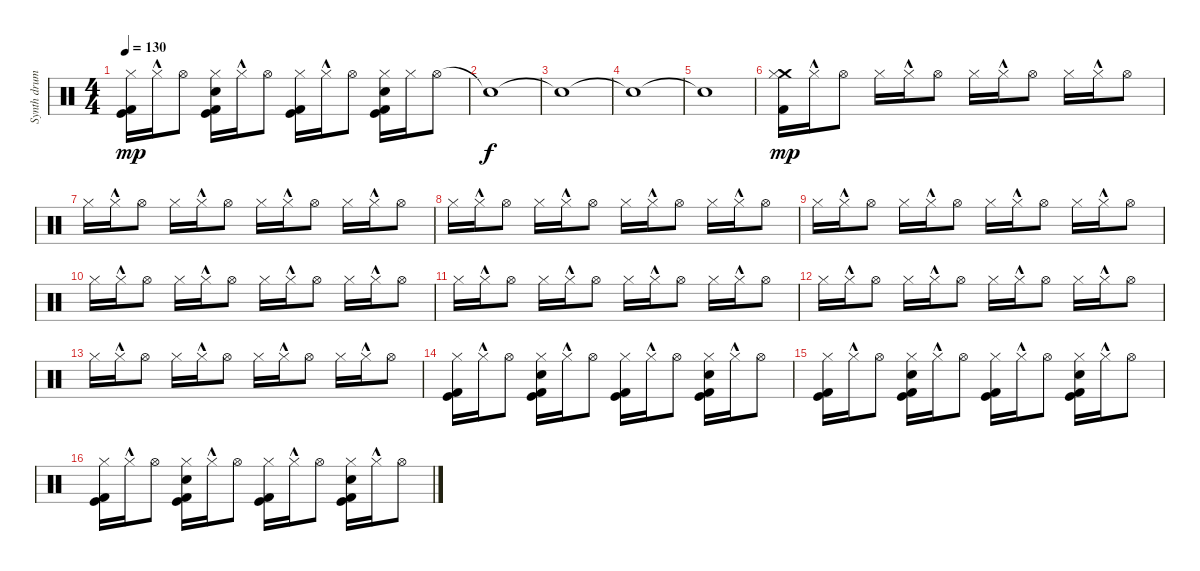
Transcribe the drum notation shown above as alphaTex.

\track ("Synth drums" "Synth drum") {instrument percussion}
\staff {score}
\articulation defaults
\ts (4 4)
\tempo 130
\clef neutral
\ks c
("Kick (hit)" "Kick (hit) 2" "Hi-Hat (closed)").16{dy mp} "Hi-Hat (closed)"{hac}.16 "Hi-Hat (open)".8 ("Hand Clap (hit)" "Kick (hit)" "Kick (hit) 2" "Hi-Hat (closed)").16 "Hi-Hat (closed)"{hac}.16 "Hi-Hat (open)".8 ("Kick (hit)" "Kick (hit) 2" "Hi-Hat (closed)").16 "Hi-Hat (closed)"{hac}.16 "Hi-Hat (open)".8 ("Hand Clap (hit)" "Kick (hit)" "Kick (hit) 2" "Hi-Hat (closed)").16 "Hi-Hat (closed)".16 "Hi-Hat (open)".8 |
"Snare (hit)"{t}.1{dy f} |
"Snare (hit)"{t}.1 |
"Snare (hit)"{t}.1 |
"Snare (hit)"{t}.1 |
("Kick (hit) 2" "Crash medium (hit)" "Hi-Hat (closed)").16{dy mp} "Hi-Hat (closed)"{hac}.16 "Hi-Hat (open)".8 "Hi-Hat (closed)".16 "Hi-Hat (closed)"{hac}.16 "Hi-Hat (open)".8 "Hi-Hat (closed)".16 "Hi-Hat (closed)"{hac}.16 "Hi-Hat (open)".8 "Hi-Hat (closed)".16 "Hi-Hat (closed)"{hac}.16 "Hi-Hat (open)".8 |
"Hi-Hat (closed)".16 "Hi-Hat (closed)"{hac}.16 "Hi-Hat (open)".8 "Hi-Hat (closed)".16 "Hi-Hat (closed)"{hac}.16 "Hi-Hat (open)".8 "Hi-Hat (closed)".16 "Hi-Hat (closed)"{hac}.16 "Hi-Hat (open)".8 "Hi-Hat (closed)".16 "Hi-Hat (closed)"{hac}.16 "Hi-Hat (open)".8 |
"Hi-Hat (closed)".16 "Hi-Hat (closed)"{hac}.16 "Hi-Hat (open)".8 "Hi-Hat (closed)".16 "Hi-Hat (closed)"{hac}.16 "Hi-Hat (open)".8 "Hi-Hat (closed)".16 "Hi-Hat (closed)"{hac}.16 "Hi-Hat (open)".8 "Hi-Hat (closed)".16 "Hi-Hat (closed)"{hac}.16 "Hi-Hat (open)".8 |
"Hi-Hat (closed)".16 "Hi-Hat (closed)"{hac}.16 "Hi-Hat (open)".8 "Hi-Hat (closed)".16 "Hi-Hat (closed)"{hac}.16 "Hi-Hat (open)".8 "Hi-Hat (closed)".16 "Hi-Hat (closed)"{hac}.16 "Hi-Hat (open)".8 "Hi-Hat (closed)".16 "Hi-Hat (closed)"{hac}.16 "Hi-Hat (open)".8 |
"Hi-Hat (closed)".16 "Hi-Hat (closed)"{hac}.16 "Hi-Hat (open)".8 "Hi-Hat (closed)".16 "Hi-Hat (closed)"{hac}.16 "Hi-Hat (open)".8 "Hi-Hat (closed)".16 "Hi-Hat (closed)"{hac}.16 "Hi-Hat (open)".8 "Hi-Hat (closed)".16 "Hi-Hat (closed)"{hac}.16 "Hi-Hat (open)".8 |
"Hi-Hat (closed)".16 "Hi-Hat (closed)"{hac}.16 "Hi-Hat (open)".8 "Hi-Hat (closed)".16 "Hi-Hat (closed)"{hac}.16 "Hi-Hat (open)".8 "Hi-Hat (closed)".16 "Hi-Hat (closed)"{hac}.16 "Hi-Hat (open)".8 "Hi-Hat (closed)".16 "Hi-Hat (closed)"{hac}.16 "Hi-Hat (open)".8 |
"Hi-Hat (closed)".16 "Hi-Hat (closed)"{hac}.16 "Hi-Hat (open)".8 "Hi-Hat (closed)".16 "Hi-Hat (closed)"{hac}.16 "Hi-Hat (open)".8 "Hi-Hat (closed)".16 "Hi-Hat (closed)"{hac}.16 "Hi-Hat (open)".8 "Hi-Hat (closed)".16 "Hi-Hat (closed)"{hac}.16 "Hi-Hat (open)".8 |
"Hi-Hat (closed)".16 "Hi-Hat (closed)"{hac}.16 "Hi-Hat (open)".8 "Hi-Hat (closed)".16 "Hi-Hat (closed)"{hac}.16 "Hi-Hat (open)".8 "Hi-Hat (closed)".16 "Hi-Hat (closed)"{hac}.16 "Hi-Hat (open)".8 "Hi-Hat (closed)".16 "Hi-Hat (closed)"{hac}.16 "Hi-Hat (open)".8 |
("Kick (hit)" "Kick (hit) 2" "Hi-Hat (closed)").16 "Hi-Hat (closed)"{hac}.16 "Hi-Hat (open)".8 ("Hand Clap (hit)" "Kick (hit)" "Kick (hit) 2" "Hi-Hat (closed)").16 "Hi-Hat (closed)"{hac}.16 "Hi-Hat (open)".8 ("Kick (hit)" "Kick (hit) 2" "Hi-Hat (closed)").16 "Hi-Hat (closed)"{hac}.16 "Hi-Hat (open)".8 ("Hand Clap (hit)" "Kick (hit)" "Kick (hit) 2" "Hi-Hat (closed)").16 "Hi-Hat (closed)"{hac}.16 "Hi-Hat (open)".8 |
("Kick (hit)" "Kick (hit) 2" "Hi-Hat (closed)").16 "Hi-Hat (closed)"{hac}.16 "Hi-Hat (open)".8 ("Hand Clap (hit)" "Kick (hit)" "Kick (hit) 2" "Hi-Hat (closed)").16 "Hi-Hat (closed)"{hac}.16 "Hi-Hat (open)".8 ("Kick (hit)" "Kick (hit) 2" "Hi-Hat (closed)").16 "Hi-Hat (closed)"{hac}.16 "Hi-Hat (open)".8 ("Hand Clap (hit)" "Kick (hit)" "Kick (hit) 2" "Hi-Hat (closed)").16 "Hi-Hat (closed)"{hac}.16 "Hi-Hat (open)".8 |
("Kick (hit)" "Kick (hit) 2" "Hi-Hat (closed)").16 "Hi-Hat (closed)"{hac}.16 "Hi-Hat (open)".8 ("Hand Clap (hit)" "Kick (hit)" "Kick (hit) 2" "Hi-Hat (closed)").16 "Hi-Hat (closed)"{hac}.16 "Hi-Hat (open)".8 ("Kick (hit)" "Kick (hit) 2" "Hi-Hat (closed)").16 "Hi-Hat (closed)"{hac}.16 "Hi-Hat (open)".8 ("Hand Clap (hit)" "Kick (hit)" "Kick (hit) 2" "Hi-Hat (closed)").16 "Hi-Hat (closed)"{hac}.16 "Hi-Hat (open)".8
